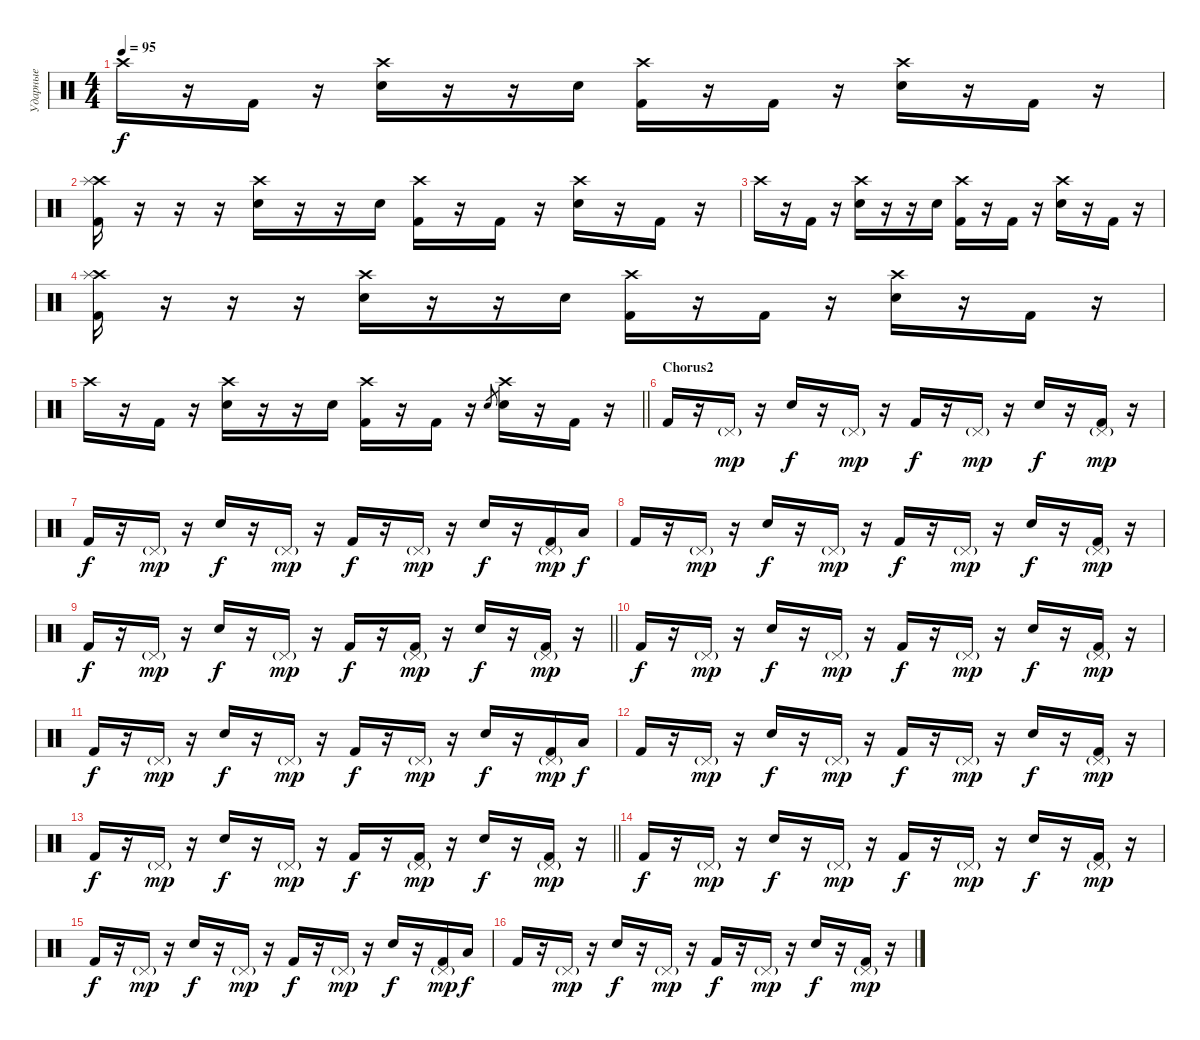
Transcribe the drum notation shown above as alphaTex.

\track ("Ударные" "Ударные") {instrument percussion}
\staff {score}
\articulation defaults
\ts (4 4)
\tempo 95
\clef neutral
\ks c "Crash high (hit)".16{dy f}
r.16 "Kick (hit) 2".16 r.16 ("Crash high (hit)" "Snare (hit) 2").16 r.16 r.16 "Snare (hit) 2".16 ("Crash high (hit)" "Kick (hit) 2").16 r.16 "Kick (hit) 2".16 r.16 ("Crash high (hit)" "Snare (hit) 2").16 r.16 "Kick (hit) 2".16 r.16 |
("Crash high (hit)" "Splash (hit)" "Kick (hit) 2").16 r.16 r.16 r.16 ("Crash high (hit)" "Snare (hit) 2").16 r.16 r.16 "Snare (hit) 2".16 ("Crash high (hit)" "Kick (hit) 2").16 r.16 "Kick (hit) 2".16 r.16 ("Crash high (hit)" "Snare (hit) 2").16 r.16 "Kick (hit) 2".16 r.16 |
"Crash high (hit)".16 r.16 "Kick (hit) 2".16 r.16 ("Crash high (hit)" "Snare (hit) 2").16 r.16 r.16 "Snare (hit) 2".16 ("Crash high (hit)" "Kick (hit) 2").16 r.16 "Kick (hit) 2".16 r.16 ("Crash high (hit)" "Snare (hit) 2").16 r.16 "Kick (hit) 2".16 r.16 |
("Crash high (hit)" "Splash (hit)" "Kick (hit) 2").16 r.16 r.16 r.16 ("Crash high (hit)" "Snare (hit) 2").16 r.16 r.16 "Snare (hit) 2".16 ("Crash high (hit)" "Kick (hit) 2").16 r.16 "Kick (hit) 2".16 r.16 ("Crash high (hit)" "Snare (hit) 2").16 r.16 "Kick (hit) 2".16 r.16 |
\barLineRight lightlight "Crash high (hit)".16
r.16 "Kick (hit) 2".16 r.16 ("Crash high (hit)" "Snare (hit) 2").16 r.16 r.16 "Snare (hit) 2".16 ("Crash high (hit)" "Kick (hit) 2").16 r.16 "Kick (hit) 2".16 r.16 "Snare (hit) 2".8{gr} ("Crash high (hit)" "Snare (hit) 2").16 r.16 "Kick (hit) 2".16 r.16 |
\section ("" "Chorus2")
"Kick (hit) 2".16 r.16 "Pedal Hi-Hat (hit)"{g}.16{dy mp} r.16 "Snare (hit) 2".16{dy f} r.16 "Pedal Hi-Hat (hit)"{g}.16{dy mp} r.16 "Kick (hit) 2".16{dy f} r.16 "Pedal Hi-Hat (hit)"{g}.16{dy mp} r.16 "Snare (hit) 2".16{dy f} r.16 ("Pedal Hi-Hat (hit)"{g} "Kick (hit) 2").16{dy mp} r.16 |
"Kick (hit) 2".16{dy f} r.16 "Pedal Hi-Hat (hit)"{g}.16{dy mp} r.16 "Snare (hit) 2".16{dy f} r.16 "Pedal Hi-Hat (hit)"{g}.16{dy mp} r.16 "Kick (hit) 2".16{dy f} r.16 "Pedal Hi-Hat (hit)"{g}.16{dy mp} r.16 "Snare (hit) 2".16{dy f} r.16 ("Pedal Hi-Hat (hit)"{g} "Kick (hit) 2").16{dy mp} "Low Tom (hit)".16{dy f} |
"Kick (hit) 2".16 r.16 "Pedal Hi-Hat (hit)"{g}.16{dy mp} r.16 "Snare (hit) 2".16{dy f} r.16 "Pedal Hi-Hat (hit)"{g}.16{dy mp} r.16 "Kick (hit) 2".16{dy f} r.16 "Pedal Hi-Hat (hit)"{g}.16{dy mp} r.16 "Snare (hit) 2".16{dy f} r.16 ("Pedal Hi-Hat (hit)"{g} "Kick (hit) 2").16{dy mp} r.16 |
\barLineRight lightlight "Kick (hit) 2".16{dy f}
r.16 "Pedal Hi-Hat (hit)"{g}.16{dy mp} r.16 "Snare (hit) 2".16{dy f} r.16 "Pedal Hi-Hat (hit)"{g}.16{dy mp} r.16 "Kick (hit) 2".16{dy f} r.16 ("Pedal Hi-Hat (hit)"{g} "Kick (hit) 2").16{dy mp} r.16 "Snare (hit) 2".16{dy f} r.16 ("Pedal Hi-Hat (hit)"{g} "Kick (hit) 2").16{dy mp} r.16 |
"Kick (hit) 2".16{dy f} r.16 "Pedal Hi-Hat (hit)"{g}.16{dy mp} r.16 "Snare (hit) 2".16{dy f} r.16 "Pedal Hi-Hat (hit)"{g}.16{dy mp} r.16 "Kick (hit) 2".16{dy f} r.16 "Pedal Hi-Hat (hit)"{g}.16{dy mp} r.16 "Snare (hit) 2".16{dy f} r.16 ("Pedal Hi-Hat (hit)"{g} "Kick (hit) 2").16{dy mp} r.16 |
"Kick (hit) 2".16{dy f} r.16 "Pedal Hi-Hat (hit)"{g}.16{dy mp} r.16 "Snare (hit) 2".16{dy f} r.16 "Pedal Hi-Hat (hit)"{g}.16{dy mp} r.16 "Kick (hit) 2".16{dy f} r.16 "Pedal Hi-Hat (hit)"{g}.16{dy mp} r.16 "Snare (hit) 2".16{dy f} r.16 ("Pedal Hi-Hat (hit)"{g} "Kick (hit) 2").16{dy mp} "Low Tom (hit)".16{dy f} |
"Kick (hit) 2".16 r.16 "Pedal Hi-Hat (hit)"{g}.16{dy mp} r.16 "Snare (hit) 2".16{dy f} r.16 "Pedal Hi-Hat (hit)"{g}.16{dy mp} r.16 "Kick (hit) 2".16{dy f} r.16 "Pedal Hi-Hat (hit)"{g}.16{dy mp} r.16 "Snare (hit) 2".16{dy f} r.16 ("Pedal Hi-Hat (hit)"{g} "Kick (hit) 2").16{dy mp} r.16 |
\barLineRight lightlight "Kick (hit) 2".16{dy f}
r.16 "Pedal Hi-Hat (hit)"{g}.16{dy mp} r.16 "Snare (hit) 2".16{dy f} r.16 "Pedal Hi-Hat (hit)"{g}.16{dy mp} r.16 "Kick (hit) 2".16{dy f} r.16 ("Pedal Hi-Hat (hit)"{g} "Kick (hit) 2").16{dy mp} r.16 "Snare (hit) 2".16{dy f} r.16 ("Pedal Hi-Hat (hit)"{g} "Kick (hit) 2").16{dy mp} r.16 |
"Kick (hit) 2".16{dy f} r.16 "Pedal Hi-Hat (hit)"{g}.16{dy mp} r.16 "Snare (hit) 2".16{dy f} r.16 "Pedal Hi-Hat (hit)"{g}.16{dy mp} r.16 "Kick (hit) 2".16{dy f} r.16 "Pedal Hi-Hat (hit)"{g}.16{dy mp} r.16 "Snare (hit) 2".16{dy f} r.16 ("Pedal Hi-Hat (hit)"{g} "Kick (hit) 2").16{dy mp} r.16 |
"Kick (hit) 2".16{dy f} r.16 "Pedal Hi-Hat (hit)"{g}.16{dy mp} r.16 "Snare (hit) 2".16{dy f} r.16 "Pedal Hi-Hat (hit)"{g}.16{dy mp} r.16 "Kick (hit) 2".16{dy f} r.16 "Pedal Hi-Hat (hit)"{g}.16{dy mp} r.16 "Snare (hit) 2".16{dy f} r.16 ("Pedal Hi-Hat (hit)"{g} "Kick (hit) 2").16{dy mp} "Low Tom (hit)".16{dy f} |
"Kick (hit) 2".16 r.16 "Pedal Hi-Hat (hit)"{g}.16{dy mp} r.16 "Snare (hit) 2".16{dy f} r.16 "Pedal Hi-Hat (hit)"{g}.16{dy mp} r.16 "Kick (hit) 2".16{dy f} r.16 "Pedal Hi-Hat (hit)"{g}.16{dy mp} r.16 "Snare (hit) 2".16{dy f} r.16 ("Pedal Hi-Hat (hit)"{g} "Kick (hit) 2").16{dy mp} r.16
